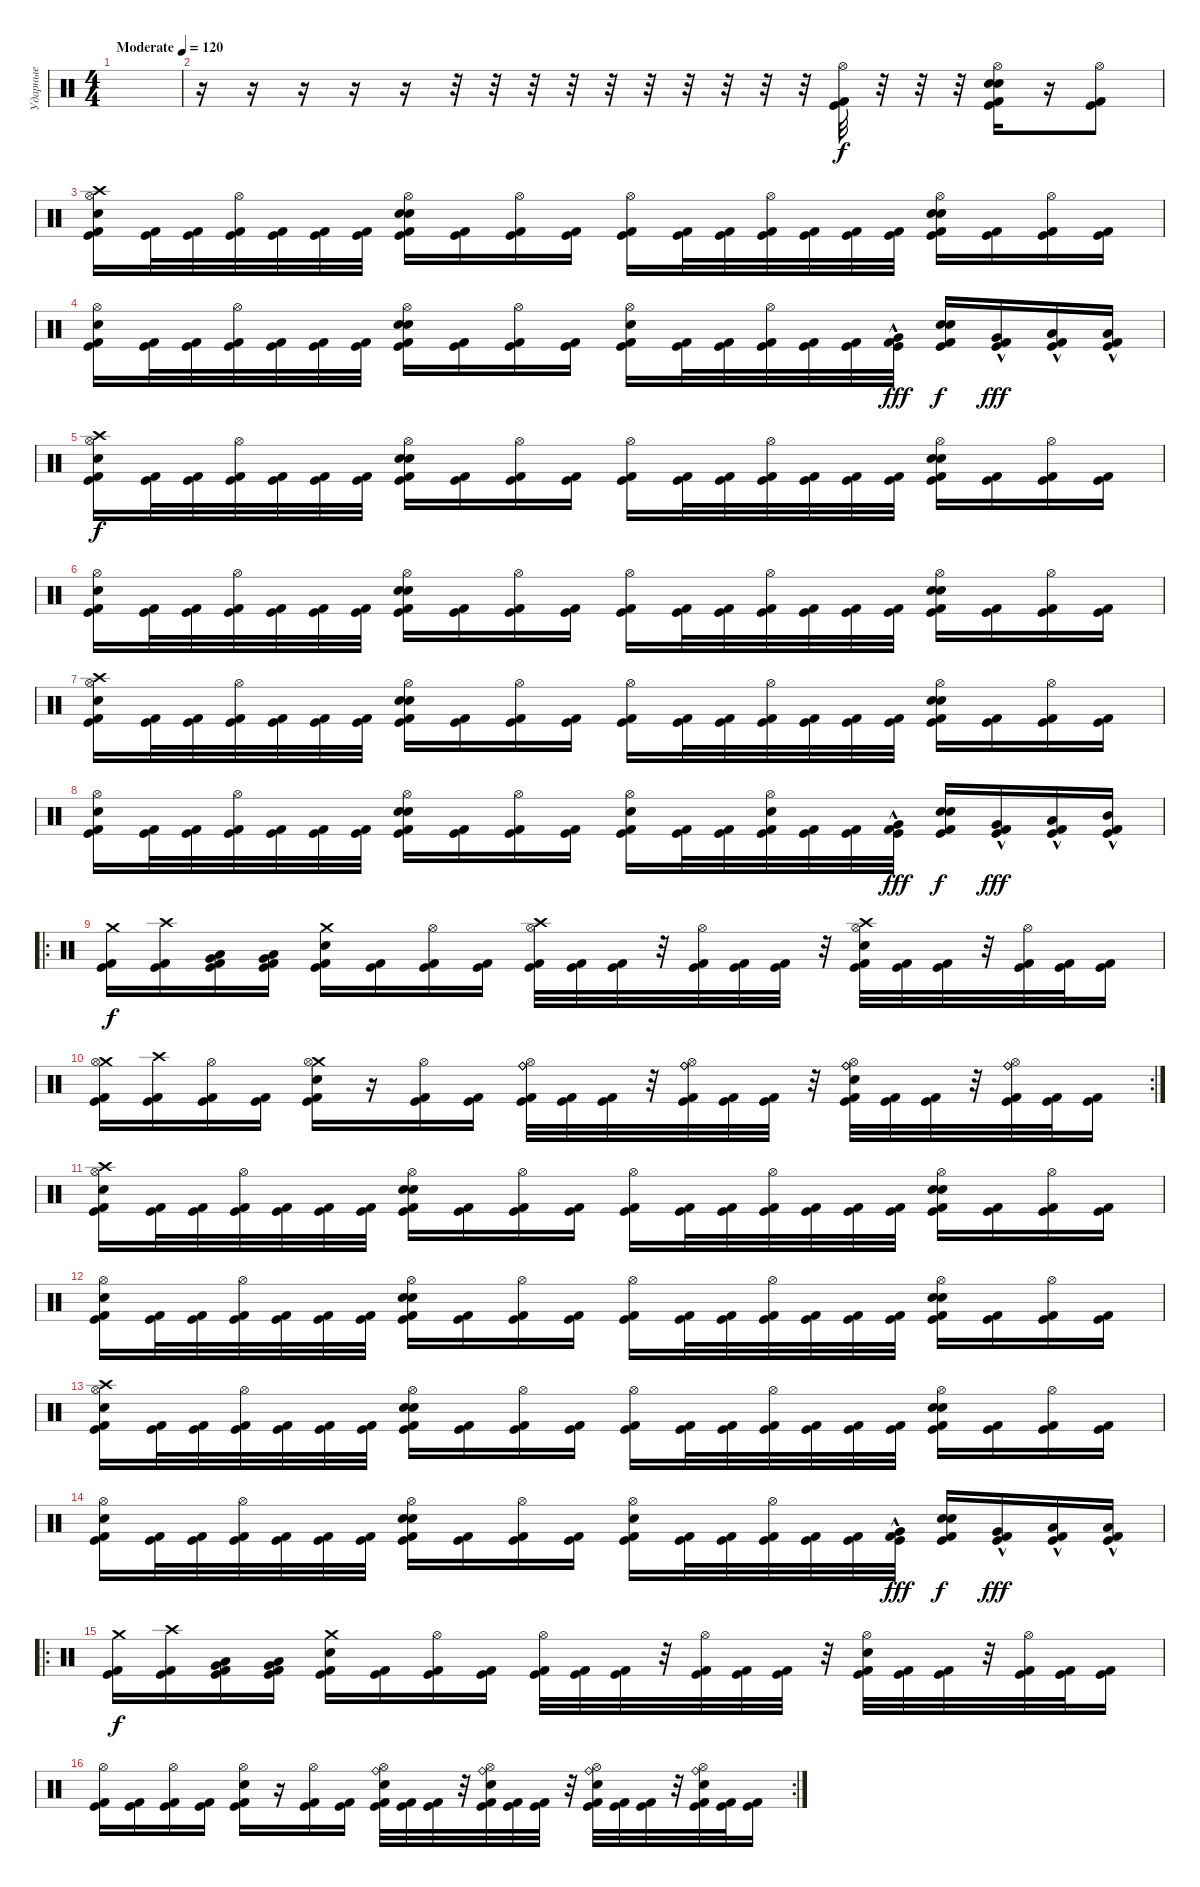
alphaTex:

\track ("Ударные" "Ударные") {instrument percussion}
\staff {score}
\articulation defaults
\ts (4 4)
\tempo (120 "Moderate")
\clef neutral
\ks c
|
r.16 r.16 r.16 r.16 r.16 r.32 r.32 r.32 r.32 r.32 r.32 r.32 r.32 r.32 r.32 ("Hi-Hat (open)" "Kick (hit)" "Kick (hit) 2").32 r.32 r.32 r.32 ("Hi-Hat (open)" "Electric Snare (hit)" "Snare (hit) 2" "Kick (hit)" "Kick (hit) 2").16 r.16 ("Hi-Hat (open)" "Kick (hit)" "Kick (hit) 2").8 |
("Crash high (hit)" "Hi-Hat (open)" "Kick (hit)" "Snare (hit)" "Kick (hit) 2").16 ("Kick (hit)" "Kick (hit) 2").32 ("Kick (hit)" "Kick (hit) 2").32 ("Hi-Hat (open)" "Kick (hit)" "Kick (hit) 2").32 ("Kick (hit)" "Kick (hit) 2").32 ("Kick (hit)" "Kick (hit) 2").32 ("Kick (hit)" "Kick (hit) 2").32 ("Hi-Hat (open)" "Electric Snare (hit)" "Snare (hit) 2" "Kick (hit)" "Kick (hit) 2").16 ("Kick (hit)" "Kick (hit) 2").16 ("Hi-Hat (open)" "Kick (hit)" "Kick (hit) 2").16 ("Kick (hit)" "Kick (hit) 2").16 ("Hi-Hat (open)" "Kick (hit)" "Kick (hit) 2").16 ("Kick (hit)" "Kick (hit) 2").32 ("Kick (hit)" "Kick (hit) 2").32 ("Hi-Hat (open)" "Kick (hit)" "Kick (hit) 2").32 ("Kick (hit)" "Kick (hit) 2").32 ("Kick (hit)" "Kick (hit) 2").32 ("Kick (hit)" "Kick (hit) 2").32 ("Hi-Hat (open)" "Electric Snare (hit)" "Snare (hit) 2" "Kick (hit)" "Kick (hit) 2").16 ("Kick (hit)" "Kick (hit) 2").16 ("Hi-Hat (open)" "Kick (hit)" "Kick (hit) 2").16 ("Kick (hit)" "Kick (hit) 2").16 |
("Hi-Hat (open)" "Kick (hit)" "Snare (hit)" "Kick (hit) 2").16 ("Kick (hit)" "Kick (hit) 2").32 ("Kick (hit)" "Kick (hit) 2").32 ("Hi-Hat (open)" "Kick (hit)" "Kick (hit) 2").32 ("Kick (hit)" "Kick (hit) 2").32 ("Kick (hit)" "Kick (hit) 2").32 ("Kick (hit)" "Kick (hit) 2").32 ("Hi-Hat (open)" "Electric Snare (hit)" "Snare (hit) 2" "Kick (hit)" "Kick (hit) 2").16 ("Kick (hit)" "Kick (hit) 2").16 ("Hi-Hat (open)" "Kick (hit)" "Kick (hit) 2").16 ("Kick (hit)" "Kick (hit) 2").16 ("Electric Snare (hit)" "Hi-Hat (open)" "Kick (hit)" "Kick (hit) 2").16 ("Kick (hit)" "Kick (hit) 2").32 ("Kick (hit)" "Kick (hit) 2").32 ("Hi-Hat (open)" "Kick (hit)" "Kick (hit) 2").32 ("Kick (hit)" "Kick (hit) 2").32 ("Kick (hit)" "Kick (hit) 2").32 ("Very Low Tom (hit)"{hac} "Kick (hit)" "Kick (hit) 2").32{dy fff} ("Electric Snare (hit)" "Snare (hit) 2" "Kick (hit)" "Kick (hit) 2").16{dy f} ("Very Low Tom (hit)"{hac} "Kick (hit)" "Kick (hit) 2").16{dy fff} ("Low Tom (hit)"{hac} "Kick (hit)" "Kick (hit) 2").16 ("Low Tom (hit)"{hac} "Kick (hit)" "Kick (hit) 2").16 |
("Crash high (hit)" "Hi-Hat (open)" "Kick (hit)" "Snare (hit)" "Kick (hit) 2").16{dy f} ("Kick (hit)" "Kick (hit) 2").32 ("Kick (hit)" "Kick (hit) 2").32 ("Hi-Hat (open)" "Kick (hit)" "Kick (hit) 2").32 ("Kick (hit)" "Kick (hit) 2").32 ("Kick (hit)" "Kick (hit) 2").32 ("Kick (hit)" "Kick (hit) 2").32 ("Hi-Hat (open)" "Electric Snare (hit)" "Snare (hit) 2" "Kick (hit)" "Kick (hit) 2").16 ("Kick (hit)" "Kick (hit) 2").16 ("Hi-Hat (open)" "Kick (hit)" "Kick (hit) 2").16 ("Kick (hit)" "Kick (hit) 2").16 ("Hi-Hat (open)" "Kick (hit)" "Kick (hit) 2").16 ("Kick (hit)" "Kick (hit) 2").32 ("Kick (hit)" "Kick (hit) 2").32 ("Hi-Hat (open)" "Kick (hit)" "Kick (hit) 2").32 ("Kick (hit)" "Kick (hit) 2").32 ("Kick (hit)" "Kick (hit) 2").32 ("Kick (hit)" "Kick (hit) 2").32 ("Hi-Hat (open)" "Electric Snare (hit)" "Snare (hit) 2" "Kick (hit)" "Kick (hit) 2").16 ("Kick (hit)" "Kick (hit) 2").16 ("Hi-Hat (open)" "Kick (hit)" "Kick (hit) 2").16 ("Kick (hit)" "Kick (hit) 2").16 |
("Hi-Hat (open)" "Kick (hit)" "Snare (hit)" "Kick (hit) 2").16 ("Kick (hit)" "Kick (hit) 2").32 ("Kick (hit)" "Kick (hit) 2").32 ("Hi-Hat (open)" "Kick (hit)" "Kick (hit) 2").32 ("Kick (hit)" "Kick (hit) 2").32 ("Kick (hit)" "Kick (hit) 2").32 ("Kick (hit)" "Kick (hit) 2").32 ("Hi-Hat (open)" "Electric Snare (hit)" "Snare (hit) 2" "Kick (hit)" "Kick (hit) 2").16 ("Kick (hit)" "Kick (hit) 2").16 ("Hi-Hat (open)" "Kick (hit)" "Kick (hit) 2").16 ("Kick (hit)" "Kick (hit) 2").16 ("Hi-Hat (open)" "Kick (hit)" "Kick (hit) 2").16 ("Kick (hit)" "Kick (hit) 2").32 ("Kick (hit)" "Kick (hit) 2").32 ("Hi-Hat (open)" "Kick (hit)" "Kick (hit) 2").32 ("Kick (hit)" "Kick (hit) 2").32 ("Kick (hit)" "Kick (hit) 2").32 ("Kick (hit)" "Kick (hit) 2").32 ("Hi-Hat (open)" "Electric Snare (hit)" "Snare (hit) 2" "Kick (hit)" "Kick (hit) 2").16 ("Kick (hit)" "Kick (hit) 2").16 ("Hi-Hat (open)" "Kick (hit)" "Kick (hit) 2").16 ("Kick (hit)" "Kick (hit) 2").16 |
("Crash high (hit)" "Hi-Hat (open)" "Kick (hit)" "Snare (hit)" "Kick (hit) 2").16 ("Kick (hit)" "Kick (hit) 2").32 ("Kick (hit)" "Kick (hit) 2").32 ("Hi-Hat (open)" "Kick (hit)" "Kick (hit) 2").32 ("Kick (hit)" "Kick (hit) 2").32 ("Kick (hit)" "Kick (hit) 2").32 ("Kick (hit)" "Kick (hit) 2").32 ("Hi-Hat (open)" "Electric Snare (hit)" "Snare (hit) 2" "Kick (hit)" "Kick (hit) 2").16 ("Kick (hit)" "Kick (hit) 2").16 ("Hi-Hat (open)" "Kick (hit)" "Kick (hit) 2").16 ("Kick (hit)" "Kick (hit) 2").16 ("Hi-Hat (open)" "Kick (hit)" "Kick (hit) 2").16 ("Kick (hit)" "Kick (hit) 2").32 ("Kick (hit)" "Kick (hit) 2").32 ("Hi-Hat (open)" "Kick (hit)" "Kick (hit) 2").32 ("Kick (hit)" "Kick (hit) 2").32 ("Kick (hit)" "Kick (hit) 2").32 ("Kick (hit)" "Kick (hit) 2").32 ("Hi-Hat (open)" "Electric Snare (hit)" "Snare (hit) 2" "Kick (hit)" "Kick (hit) 2").16 ("Kick (hit)" "Kick (hit) 2").16 ("Hi-Hat (open)" "Kick (hit)" "Kick (hit) 2").16 ("Kick (hit)" "Kick (hit) 2").16 |
("Hi-Hat (open)" "Kick (hit)" "Snare (hit)" "Kick (hit) 2").16 ("Kick (hit)" "Kick (hit) 2").32 ("Kick (hit)" "Kick (hit) 2").32 ("Hi-Hat (open)" "Kick (hit)" "Kick (hit) 2").32 ("Kick (hit)" "Kick (hit) 2").32 ("Kick (hit)" "Kick (hit) 2").32 ("Kick (hit)" "Kick (hit) 2").32 ("Hi-Hat (open)" "Electric Snare (hit)" "Snare (hit) 2" "Kick (hit)" "Kick (hit) 2").16 ("Kick (hit)" "Kick (hit) 2").16 ("Hi-Hat (open)" "Kick (hit)" "Kick (hit) 2").16 ("Kick (hit)" "Kick (hit) 2").16 ("Electric Snare (hit)" "Hi-Hat (open)" "Kick (hit)" "Kick (hit) 2").16 ("Kick (hit)" "Kick (hit) 2").32 ("Kick (hit)" "Kick (hit) 2").32 ("Electric Snare (hit)" "Hi-Hat (open)" "Kick (hit)" "Kick (hit) 2").32 ("Kick (hit)" "Kick (hit) 2").32 ("Kick (hit)" "Kick (hit) 2").32 ("Very Low Tom (hit)"{hac} "Kick (hit)" "Kick (hit) 2").32{dy fff} ("Electric Snare (hit)" "Snare (hit) 2" "Kick (hit)" "Kick (hit) 2").16{dy f} ("Very Low Tom (hit)"{hac} "Kick (hit)" "Kick (hit) 2").16{dy fff} ("Low Tom (hit)"{hac} "Kick (hit)" "Kick (hit) 2").16 ("Mid Tom (hit)"{hac} "Kick (hit)" "Kick (hit) 2").16 |
\ro
("Crash medium (hit)" "Kick (hit)" "Kick (hit) 2").16{dy f} ("Crash high (hit)" "Kick (hit)" "Kick (hit) 2").16 ("Low Floor Tom (hit)" "Very Low Tom (hit)" "Kick (hit)" "Kick (hit) 2").16 ("Low Tom (hit)" "Very Low Tom (hit)" "Kick (hit)" "Kick (hit) 2").16 ("Crash medium (hit)" "Electric Snare (hit)" "Kick (hit)" "Kick (hit) 2").16 ("Kick (hit)" "Kick (hit) 2").16 ("Hi-Hat (open)" "Kick (hit)" "Kick (hit) 2").16 ("Kick (hit)" "Kick (hit) 2").16 ("Crash high (hit)" "Hi-Hat (open)" "Kick (hit)" "Kick (hit) 2").32 ("Kick (hit)" "Kick (hit) 2").32 ("Kick (hit)" "Kick (hit) 2").32 r.32 ("Hi-Hat (open)" "Kick (hit)" "Kick (hit) 2").32 ("Kick (hit)" "Kick (hit) 2").32 ("Kick (hit)" "Kick (hit) 2").32 r.32 ("Crash high (hit)" "Hi-Hat (open)" "Electric Snare (hit)" "Kick (hit)" "Kick (hit) 2").32 ("Kick (hit)" "Kick (hit) 2").32 ("Kick (hit)" "Kick (hit) 2").32 r.32 ("Hi-Hat (open)" "Kick (hit)" "Kick (hit) 2").32 ("Kick (hit)" "Kick (hit) 2").32 ("Kick (hit)" "Kick (hit) 2").16 |
\rc 2
("Crash medium (hit)" "Hi-Hat (open)" "Kick (hit)" "Kick (hit) 2").16 ("Crash high (hit)" "Kick (hit)" "Kick (hit) 2").16 ("Hi-Hat (open)" "Kick (hit)" "Kick (hit) 2").16 ("Kick (hit)" "Kick (hit) 2").16 ("Crash medium (hit)" "Hi-Hat (open)" "Electric Snare (hit)" "Kick (hit)" "Kick (hit) 2").16 r.16 ("Hi-Hat (open)" "Kick (hit)" "Kick (hit) 2").16 ("Kick (hit)" "Kick (hit) 2").16 ("Ride (bell)" "Ride (bell)" "Hi-Hat (open)" "Kick (hit)" "Kick (hit) 2").32 ("Kick (hit)" "Kick (hit) 2").32 ("Kick (hit)" "Kick (hit) 2").32 r.32 ("Ride (bell)" "Ride (bell)" "Hi-Hat (open)" "Kick (hit)" "Kick (hit) 2").32 ("Kick (hit)" "Kick (hit) 2").32 ("Kick (hit)" "Kick (hit) 2").32 r.32 ("Ride (bell)" "Hi-Hat (open)" "Electric Snare (hit)" "Ride (bell)" "Kick (hit)" "Kick (hit) 2").32 ("Kick (hit)" "Kick (hit) 2").32 ("Kick (hit)" "Kick (hit) 2").32 r.32 ("Ride (bell)" "Ride (bell)" "Hi-Hat (open)" "Kick (hit)" "Kick (hit) 2").32 ("Kick (hit)" "Kick (hit) 2").32 ("Kick (hit)" "Kick (hit) 2").16 |
("Crash high (hit)" "Hi-Hat (open)" "Kick (hit)" "Snare (hit)" "Kick (hit) 2").16 ("Kick (hit)" "Kick (hit) 2").32 ("Kick (hit)" "Kick (hit) 2").32 ("Hi-Hat (open)" "Kick (hit)" "Kick (hit) 2").32 ("Kick (hit)" "Kick (hit) 2").32 ("Kick (hit)" "Kick (hit) 2").32 ("Kick (hit)" "Kick (hit) 2").32 ("Hi-Hat (open)" "Electric Snare (hit)" "Snare (hit) 2" "Kick (hit)" "Kick (hit) 2").16 ("Kick (hit)" "Kick (hit) 2").16 ("Hi-Hat (open)" "Kick (hit)" "Kick (hit) 2").16 ("Kick (hit)" "Kick (hit) 2").16 ("Hi-Hat (open)" "Kick (hit)" "Kick (hit) 2").16 ("Kick (hit)" "Kick (hit) 2").32 ("Kick (hit)" "Kick (hit) 2").32 ("Hi-Hat (open)" "Kick (hit)" "Kick (hit) 2").32 ("Kick (hit)" "Kick (hit) 2").32 ("Kick (hit)" "Kick (hit) 2").32 ("Kick (hit)" "Kick (hit) 2").32 ("Hi-Hat (open)" "Electric Snare (hit)" "Snare (hit) 2" "Kick (hit)" "Kick (hit) 2").16 ("Kick (hit)" "Kick (hit) 2").16 ("Hi-Hat (open)" "Kick (hit)" "Kick (hit) 2").16 ("Kick (hit)" "Kick (hit) 2").16 |
("Hi-Hat (open)" "Kick (hit)" "Snare (hit)" "Kick (hit) 2").16 ("Kick (hit)" "Kick (hit) 2").32 ("Kick (hit)" "Kick (hit) 2").32 ("Hi-Hat (open)" "Kick (hit)" "Kick (hit) 2").32 ("Kick (hit)" "Kick (hit) 2").32 ("Kick (hit)" "Kick (hit) 2").32 ("Kick (hit)" "Kick (hit) 2").32 ("Hi-Hat (open)" "Electric Snare (hit)" "Snare (hit) 2" "Kick (hit)" "Kick (hit) 2").16 ("Kick (hit)" "Kick (hit) 2").16 ("Hi-Hat (open)" "Kick (hit)" "Kick (hit) 2").16 ("Kick (hit)" "Kick (hit) 2").16 ("Hi-Hat (open)" "Kick (hit)" "Kick (hit) 2").16 ("Kick (hit)" "Kick (hit) 2").32 ("Kick (hit)" "Kick (hit) 2").32 ("Hi-Hat (open)" "Kick (hit)" "Kick (hit) 2").32 ("Kick (hit)" "Kick (hit) 2").32 ("Kick (hit)" "Kick (hit) 2").32 ("Kick (hit)" "Kick (hit) 2").32 ("Hi-Hat (open)" "Electric Snare (hit)" "Snare (hit) 2" "Kick (hit)" "Kick (hit) 2").16 ("Kick (hit)" "Kick (hit) 2").16 ("Hi-Hat (open)" "Kick (hit)" "Kick (hit) 2").16 ("Kick (hit)" "Kick (hit) 2").16 |
("Crash high (hit)" "Hi-Hat (open)" "Kick (hit)" "Snare (hit)" "Kick (hit) 2").16 ("Kick (hit)" "Kick (hit) 2").32 ("Kick (hit)" "Kick (hit) 2").32 ("Hi-Hat (open)" "Kick (hit)" "Kick (hit) 2").32 ("Kick (hit)" "Kick (hit) 2").32 ("Kick (hit)" "Kick (hit) 2").32 ("Kick (hit)" "Kick (hit) 2").32 ("Hi-Hat (open)" "Electric Snare (hit)" "Snare (hit) 2" "Kick (hit)" "Kick (hit) 2").16 ("Kick (hit)" "Kick (hit) 2").16 ("Hi-Hat (open)" "Kick (hit)" "Kick (hit) 2").16 ("Kick (hit)" "Kick (hit) 2").16 ("Hi-Hat (open)" "Kick (hit)" "Kick (hit) 2").16 ("Kick (hit)" "Kick (hit) 2").32 ("Kick (hit)" "Kick (hit) 2").32 ("Hi-Hat (open)" "Kick (hit)" "Kick (hit) 2").32 ("Kick (hit)" "Kick (hit) 2").32 ("Kick (hit)" "Kick (hit) 2").32 ("Kick (hit)" "Kick (hit) 2").32 ("Hi-Hat (open)" "Electric Snare (hit)" "Snare (hit) 2" "Kick (hit)" "Kick (hit) 2").16 ("Kick (hit)" "Kick (hit) 2").16 ("Hi-Hat (open)" "Kick (hit)" "Kick (hit) 2").16 ("Kick (hit)" "Kick (hit) 2").16 |
("Hi-Hat (open)" "Kick (hit)" "Snare (hit)" "Kick (hit) 2").16 ("Kick (hit)" "Kick (hit) 2").32 ("Kick (hit)" "Kick (hit) 2").32 ("Hi-Hat (open)" "Kick (hit)" "Kick (hit) 2").32 ("Kick (hit)" "Kick (hit) 2").32 ("Kick (hit)" "Kick (hit) 2").32 ("Kick (hit)" "Kick (hit) 2").32 ("Hi-Hat (open)" "Electric Snare (hit)" "Snare (hit) 2" "Kick (hit)" "Kick (hit) 2").16 ("Kick (hit)" "Kick (hit) 2").16 ("Hi-Hat (open)" "Kick (hit)" "Kick (hit) 2").16 ("Kick (hit)" "Kick (hit) 2").16 ("Electric Snare (hit)" "Hi-Hat (open)" "Kick (hit)" "Kick (hit) 2").16 ("Kick (hit)" "Kick (hit) 2").32 ("Kick (hit)" "Kick (hit) 2").32 ("Hi-Hat (open)" "Kick (hit)" "Kick (hit) 2").32 ("Kick (hit)" "Kick (hit) 2").32 ("Kick (hit)" "Kick (hit) 2").32 ("Very Low Tom (hit)"{hac} "Kick (hit)" "Kick (hit) 2").32{dy fff} ("Electric Snare (hit)" "Snare (hit) 2" "Kick (hit)" "Kick (hit) 2").16{dy f} ("Very Low Tom (hit)"{hac} "Kick (hit)" "Kick (hit) 2").16{dy fff} ("Low Tom (hit)"{hac} "Kick (hit)" "Kick (hit) 2").16 ("Low Tom (hit)"{hac} "Kick (hit)" "Kick (hit) 2").16 |
\ro
("Crash medium (hit)" "Kick (hit)" "Kick (hit) 2").16{dy f} ("Crash high (hit)" "Kick (hit)" "Kick (hit) 2").16 ("Low Floor Tom (hit)" "Very Low Tom (hit)" "Kick (hit)" "Kick (hit) 2").16 ("Low Tom (hit)" "Very Low Tom (hit)" "Kick (hit)" "Kick (hit) 2").16 ("Crash medium (hit)" "Electric Snare (hit)" "Kick (hit)" "Kick (hit) 2").16 ("Kick (hit)" "Kick (hit) 2").16 ("Hi-Hat (open)" "Kick (hit)" "Kick (hit) 2").16 ("Kick (hit)" "Kick (hit) 2").16 ("Hi-Hat (open)" "Kick (hit)" "Kick (hit) 2").32 ("Kick (hit)" "Kick (hit) 2").32 ("Kick (hit)" "Kick (hit) 2").32 r.32 ("Hi-Hat (open)" "Kick (hit)" "Kick (hit) 2").32 ("Kick (hit)" "Kick (hit) 2").32 ("Kick (hit)" "Kick (hit) 2").32 r.32 ("Hi-Hat (open)" "Electric Snare (hit)" "Kick (hit)" "Kick (hit) 2").32 ("Kick (hit)" "Kick (hit) 2").32 ("Kick (hit)" "Kick (hit) 2").32 r.32 ("Hi-Hat (open)" "Kick (hit)" "Kick (hit) 2").32 ("Kick (hit)" "Kick (hit) 2").32 ("Kick (hit)" "Kick (hit) 2").16 |
\rc 2
("Hi-Hat (open)" "Kick (hit)" "Kick (hit) 2").16 ("Kick (hit)" "Kick (hit) 2").16 ("Hi-Hat (open)" "Kick (hit)" "Kick (hit) 2").16 ("Kick (hit)" "Kick (hit) 2").16 ("Hi-Hat (open)" "Electric Snare (hit)" "Kick (hit)" "Kick (hit) 2").16 r.16 ("Hi-Hat (open)" "Kick (hit)" "Kick (hit) 2").16 ("Kick (hit)" "Kick (hit) 2").16 ("Ride (bell)" "Electric Snare (hit)" "Hi-Hat (open)" "Kick (hit)" "Kick (hit) 2").32 ("Kick (hit)" "Kick (hit) 2").32 ("Kick (hit)" "Kick (hit) 2").32 r.32 ("Ride (bell)" "Electric Snare (hit)" "Hi-Hat (open)" "Kick (hit)" "Kick (hit) 2").32 ("Kick (hit)" "Kick (hit) 2").32 ("Kick (hit)" "Kick (hit) 2").32 r.32 ("Ride (bell)" "Hi-Hat (open)" "Electric Snare (hit)" "Kick (hit)" "Kick (hit) 2").32 ("Kick (hit)" "Kick (hit) 2").32 ("Kick (hit)" "Kick (hit) 2").32 r.32 ("Ride (bell)" "Electric Snare (hit)" "Hi-Hat (open)" "Kick (hit)" "Kick (hit) 2").32 ("Kick (hit)" "Kick (hit) 2").32 ("Kick (hit)" "Kick (hit) 2").16
